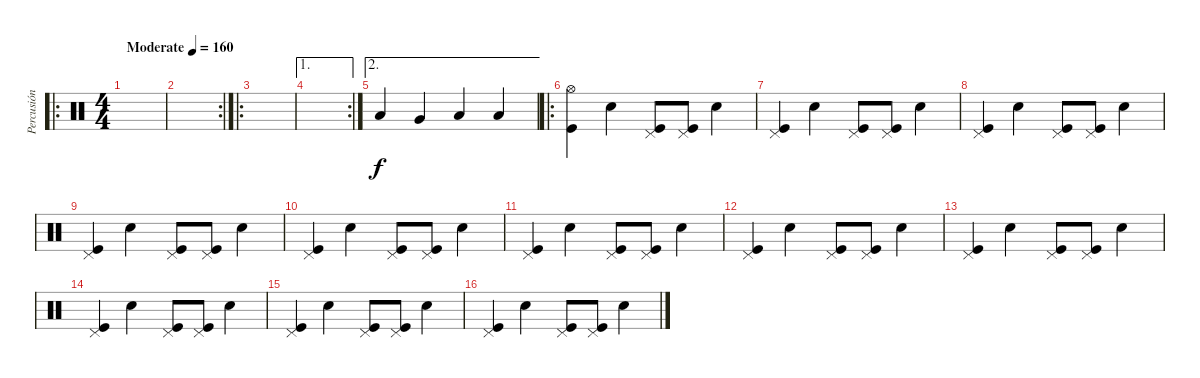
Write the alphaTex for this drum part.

\track ("Percusión" "Percusión") {instrument percussion}
\staff {score}
\articulation defaults
\ro
\ts (4 4)
\tempo (160 "Moderate")
\clef neutral
\ks c
|
\rc 2
|
\ro
|
\ae 1
\rc 2
|
\ae 2 "Low Tom (hit)".4 "Very Low Tom (hit)".4 "Low Floor Tom (hit)".4 "Low Floor Tom (hit)".4
|
\ro
("Hi-Hat (open)" "Kick (hit)").4 "Snare (hit) 2".4 ("Pedal Hi-Hat (hit)" "Kick (hit)").8 ("Pedal Hi-Hat (hit)" "Kick (hit)").8 "Snare (hit) 2".4 |
("Pedal Hi-Hat (hit)" "Kick (hit)").4 "Snare (hit) 2".4 ("Pedal Hi-Hat (hit)" "Kick (hit)").8 ("Pedal Hi-Hat (hit)" "Kick (hit)").8 "Snare (hit) 2".4 |
("Pedal Hi-Hat (hit)" "Kick (hit)").4 "Snare (hit) 2".4 ("Pedal Hi-Hat (hit)" "Kick (hit)").8 ("Pedal Hi-Hat (hit)" "Kick (hit)").8 "Snare (hit) 2".4 |
("Pedal Hi-Hat (hit)" "Kick (hit)").4 "Snare (hit) 2".4 ("Pedal Hi-Hat (hit)" "Kick (hit)").8 ("Pedal Hi-Hat (hit)" "Kick (hit)").8 "Snare (hit) 2".4 |
("Pedal Hi-Hat (hit)" "Kick (hit)").4 "Snare (hit) 2".4 ("Pedal Hi-Hat (hit)" "Kick (hit)").8 ("Pedal Hi-Hat (hit)" "Kick (hit)").8 "Snare (hit) 2".4 |
("Pedal Hi-Hat (hit)" "Kick (hit)").4 "Snare (hit) 2".4 ("Pedal Hi-Hat (hit)" "Kick (hit)").8 ("Pedal Hi-Hat (hit)" "Kick (hit)").8 "Snare (hit) 2".4 |
("Pedal Hi-Hat (hit)" "Kick (hit)").4 "Snare (hit) 2".4 ("Pedal Hi-Hat (hit)" "Kick (hit)").8 ("Pedal Hi-Hat (hit)" "Kick (hit)").8 "Snare (hit) 2".4 |
("Pedal Hi-Hat (hit)" "Kick (hit)").4 "Snare (hit) 2".4 ("Pedal Hi-Hat (hit)" "Kick (hit)").8 ("Pedal Hi-Hat (hit)" "Kick (hit)").8 "Snare (hit) 2".4 |
("Pedal Hi-Hat (hit)" "Kick (hit)").4 "Snare (hit) 2".4 ("Pedal Hi-Hat (hit)" "Kick (hit)").8 ("Pedal Hi-Hat (hit)" "Kick (hit)").8 "Snare (hit) 2".4 |
("Pedal Hi-Hat (hit)" "Kick (hit)").4 "Snare (hit) 2".4 ("Pedal Hi-Hat (hit)" "Kick (hit)").8 ("Pedal Hi-Hat (hit)" "Kick (hit)").8 "Snare (hit) 2".4 |
("Pedal Hi-Hat (hit)" "Kick (hit)").4 "Snare (hit) 2".4 ("Pedal Hi-Hat (hit)" "Kick (hit)").8 ("Pedal Hi-Hat (hit)" "Kick (hit)").8 "Snare (hit) 2".4
